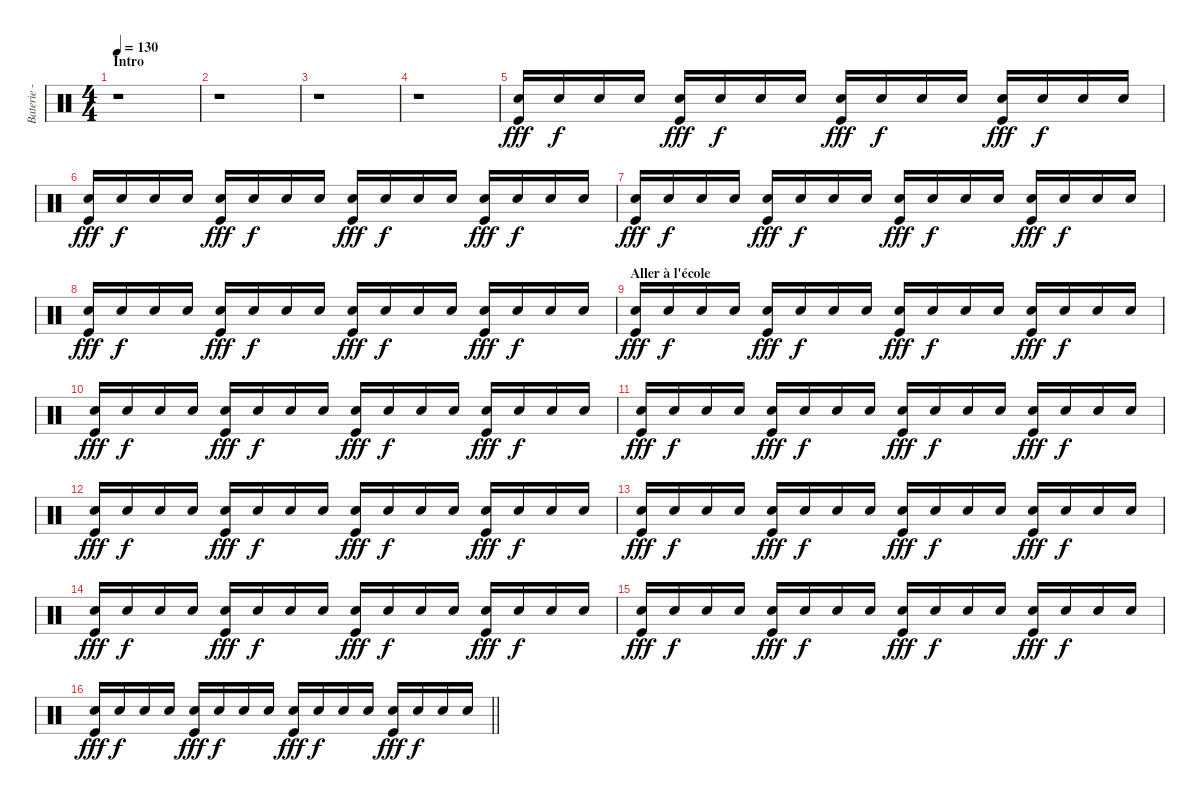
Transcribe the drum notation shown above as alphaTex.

\track ("Baterie - Alex" "Baterie - ") {instrument percussion}
\staff {score}
\articulation defaults
\ts (4 4)
\section ("" "Intro")
\tempo 130
\clef neutral
\ks c
r.1{dy fff} |
r.1 |
r.1 |
r.1{volume 3} |
("Electric Snare (hit)" "Kick (hit)").16{volume 5} "Electric Snare (hit)".16{dy f} "Electric Snare (hit)".16 "Electric Snare (hit)".16 ("Electric Snare (hit)" "Kick (hit)").16{dy fff} "Electric Snare (hit)".16{dy f} "Electric Snare (hit)".16 "Electric Snare (hit)".16 ("Electric Snare (hit)" "Kick (hit)").16{dy fff} "Electric Snare (hit)".16{dy f} "Electric Snare (hit)".16 "Electric Snare (hit)".16 ("Electric Snare (hit)" "Kick (hit)").16{dy fff} "Electric Snare (hit)".16{dy f} "Electric Snare (hit)".16 "Electric Snare (hit)".16 |
("Electric Snare (hit)" "Kick (hit)").16{dy fff} "Electric Snare (hit)".16{dy f} "Electric Snare (hit)".16 "Electric Snare (hit)".16 ("Electric Snare (hit)" "Kick (hit)").16{dy fff} "Electric Snare (hit)".16{dy f} "Electric Snare (hit)".16 "Electric Snare (hit)".16 ("Electric Snare (hit)" "Kick (hit)").16{dy fff} "Electric Snare (hit)".16{dy f} "Electric Snare (hit)".16 "Electric Snare (hit)".16 ("Electric Snare (hit)" "Kick (hit)").16{dy fff} "Electric Snare (hit)".16{dy f} "Electric Snare (hit)".16 "Electric Snare (hit)".16 |
("Electric Snare (hit)" "Kick (hit)").16{dy fff} "Electric Snare (hit)".16{dy f} "Electric Snare (hit)".16 "Electric Snare (hit)".16 ("Electric Snare (hit)" "Kick (hit)").16{dy fff} "Electric Snare (hit)".16{dy f} "Electric Snare (hit)".16 "Electric Snare (hit)".16 ("Electric Snare (hit)" "Kick (hit)").16{dy fff} "Electric Snare (hit)".16{dy f} "Electric Snare (hit)".16 "Electric Snare (hit)".16 ("Electric Snare (hit)" "Kick (hit)").16{dy fff} "Electric Snare (hit)".16{dy f} "Electric Snare (hit)".16 "Electric Snare (hit)".16 |
("Electric Snare (hit)" "Kick (hit)").16{dy fff} "Electric Snare (hit)".16{dy f} "Electric Snare (hit)".16 "Electric Snare (hit)".16 ("Electric Snare (hit)" "Kick (hit)").16{dy fff} "Electric Snare (hit)".16{dy f} "Electric Snare (hit)".16 "Electric Snare (hit)".16 ("Electric Snare (hit)" "Kick (hit)").16{dy fff} "Electric Snare (hit)".16{dy f} "Electric Snare (hit)".16 "Electric Snare (hit)".16 ("Electric Snare (hit)" "Kick (hit)").16{dy fff} "Electric Snare (hit)".16{dy f} "Electric Snare (hit)".16 "Electric Snare (hit)".16 |
\section ("" "Aller à l'école")
("Electric Snare (hit)" "Kick (hit)").16{dy fff volume 8} "Electric Snare (hit)".16{dy f} "Electric Snare (hit)".16 "Electric Snare (hit)".16 ("Electric Snare (hit)" "Kick (hit)").16{dy fff} "Electric Snare (hit)".16{dy f} "Electric Snare (hit)".16 "Electric Snare (hit)".16 ("Electric Snare (hit)" "Kick (hit)").16{dy fff} "Electric Snare (hit)".16{dy f} "Electric Snare (hit)".16 "Electric Snare (hit)".16 ("Electric Snare (hit)" "Kick (hit)").16{dy fff} "Electric Snare (hit)".16{dy f} "Electric Snare (hit)".16 "Electric Snare (hit)".16 |
("Electric Snare (hit)" "Kick (hit)").16{dy fff} "Electric Snare (hit)".16{dy f} "Electric Snare (hit)".16 "Electric Snare (hit)".16 ("Electric Snare (hit)" "Kick (hit)").16{dy fff} "Electric Snare (hit)".16{dy f} "Electric Snare (hit)".16 "Electric Snare (hit)".16 ("Electric Snare (hit)" "Kick (hit)").16{dy fff} "Electric Snare (hit)".16{dy f} "Electric Snare (hit)".16 "Electric Snare (hit)".16 ("Electric Snare (hit)" "Kick (hit)").16{dy fff} "Electric Snare (hit)".16{dy f} "Electric Snare (hit)".16 "Electric Snare (hit)".16 |
("Electric Snare (hit)" "Kick (hit)").16{dy fff} "Electric Snare (hit)".16{dy f} "Electric Snare (hit)".16 "Electric Snare (hit)".16 ("Electric Snare (hit)" "Kick (hit)").16{dy fff} "Electric Snare (hit)".16{dy f} "Electric Snare (hit)".16 "Electric Snare (hit)".16 ("Electric Snare (hit)" "Kick (hit)").16{dy fff} "Electric Snare (hit)".16{dy f} "Electric Snare (hit)".16 "Electric Snare (hit)".16 ("Electric Snare (hit)" "Kick (hit)").16{dy fff} "Electric Snare (hit)".16{dy f} "Electric Snare (hit)".16 "Electric Snare (hit)".16 |
("Electric Snare (hit)" "Kick (hit)").16{dy fff} "Electric Snare (hit)".16{dy f} "Electric Snare (hit)".16 "Electric Snare (hit)".16 ("Electric Snare (hit)" "Kick (hit)").16{dy fff} "Electric Snare (hit)".16{dy f} "Electric Snare (hit)".16 "Electric Snare (hit)".16 ("Electric Snare (hit)" "Kick (hit)").16{dy fff} "Electric Snare (hit)".16{dy f} "Electric Snare (hit)".16 "Electric Snare (hit)".16 ("Electric Snare (hit)" "Kick (hit)").16{dy fff} "Electric Snare (hit)".16{dy f} "Electric Snare (hit)".16 "Electric Snare (hit)".16 |
("Electric Snare (hit)" "Kick (hit)").16{dy fff volume 11} "Electric Snare (hit)".16{dy f} "Electric Snare (hit)".16 "Electric Snare (hit)".16 ("Electric Snare (hit)" "Kick (hit)").16{dy fff} "Electric Snare (hit)".16{dy f} "Electric Snare (hit)".16 "Electric Snare (hit)".16 ("Electric Snare (hit)" "Kick (hit)").16{dy fff} "Electric Snare (hit)".16{dy f} "Electric Snare (hit)".16 "Electric Snare (hit)".16 ("Electric Snare (hit)" "Kick (hit)").16{dy fff} "Electric Snare (hit)".16{dy f} "Electric Snare (hit)".16 "Electric Snare (hit)".16 |
("Electric Snare (hit)" "Kick (hit)").16{dy fff} "Electric Snare (hit)".16{dy f} "Electric Snare (hit)".16 "Electric Snare (hit)".16 ("Electric Snare (hit)" "Kick (hit)").16{dy fff} "Electric Snare (hit)".16{dy f} "Electric Snare (hit)".16 "Electric Snare (hit)".16 ("Electric Snare (hit)" "Kick (hit)").16{dy fff} "Electric Snare (hit)".16{dy f} "Electric Snare (hit)".16 "Electric Snare (hit)".16 ("Electric Snare (hit)" "Kick (hit)").16{dy fff} "Electric Snare (hit)".16{dy f} "Electric Snare (hit)".16 "Electric Snare (hit)".16 |
("Electric Snare (hit)" "Kick (hit)").16{dy fff} "Electric Snare (hit)".16{dy f} "Electric Snare (hit)".16 "Electric Snare (hit)".16 ("Electric Snare (hit)" "Kick (hit)").16{dy fff} "Electric Snare (hit)".16{dy f} "Electric Snare (hit)".16 "Electric Snare (hit)".16 ("Electric Snare (hit)" "Kick (hit)").16{dy fff} "Electric Snare (hit)".16{dy f} "Electric Snare (hit)".16 "Electric Snare (hit)".16 ("Electric Snare (hit)" "Kick (hit)").16{dy fff} "Electric Snare (hit)".16{dy f} "Electric Snare (hit)".16 "Electric Snare (hit)".16 |
\barLineRight lightlight
("Electric Snare (hit)" "Kick (hit)").16{dy fff} "Electric Snare (hit)".16{dy f} "Electric Snare (hit)".16 "Electric Snare (hit)".16 ("Electric Snare (hit)" "Kick (hit)").16{dy fff} "Electric Snare (hit)".16{dy f} "Electric Snare (hit)".16 "Electric Snare (hit)".16 ("Electric Snare (hit)" "Kick (hit)").16{dy fff} "Electric Snare (hit)".16{dy f} "Electric Snare (hit)".16 "Electric Snare (hit)".16 ("Electric Snare (hit)" "Kick (hit)").16{dy fff} "Electric Snare (hit)".16{dy f} "Electric Snare (hit)".16 "Electric Snare (hit)".16
